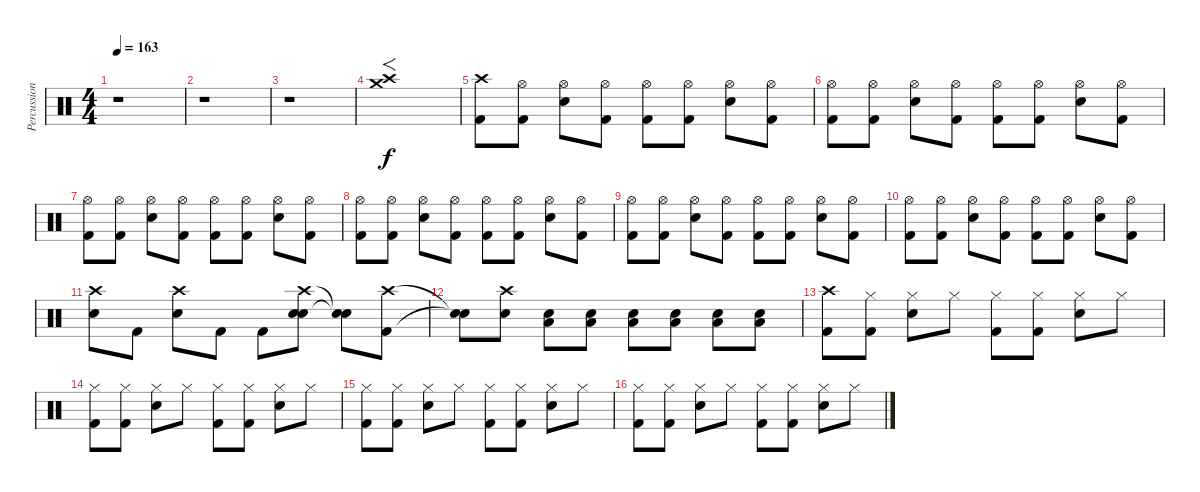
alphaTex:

\track ("Percussion" "Percussion") {instrument percussion}
\staff {score}
\articulation defaults
\ts (4 4)
\tempo 163
\clef neutral
\ks c
r.1{dy f} |
r.1 |
r.1 |
("Crash high (hit)" "Crash medium (hit)").1{f} |
("Crash high (hit)" "Kick (hit) 2").8 ("Hi-Hat (open)" "Kick (hit) 2").8 ("Hi-Hat (open)" "Snare (hit) 2").8 ("Hi-Hat (open)" "Kick (hit) 2").8 ("Hi-Hat (open)" "Kick (hit) 2").8 ("Hi-Hat (open)" "Kick (hit) 2").8 ("Hi-Hat (open)" "Snare (hit) 2").8 ("Hi-Hat (open)" "Kick (hit) 2").8 |
("Hi-Hat (open)" "Kick (hit) 2").8 ("Hi-Hat (open)" "Kick (hit) 2").8 ("Hi-Hat (open)" "Snare (hit) 2").8 ("Hi-Hat (open)" "Kick (hit) 2").8 ("Hi-Hat (open)" "Kick (hit) 2").8 ("Hi-Hat (open)" "Kick (hit) 2").8 ("Hi-Hat (open)" "Snare (hit) 2").8 ("Hi-Hat (open)" "Kick (hit) 2").8 |
("Hi-Hat (open)" "Kick (hit) 2").8 ("Hi-Hat (open)" "Kick (hit) 2").8 ("Hi-Hat (open)" "Snare (hit) 2").8 ("Hi-Hat (open)" "Kick (hit) 2").8 ("Hi-Hat (open)" "Kick (hit) 2").8 ("Hi-Hat (open)" "Kick (hit) 2").8 ("Hi-Hat (open)" "Snare (hit) 2").8 ("Hi-Hat (open)" "Kick (hit) 2").8 |
("Hi-Hat (open)" "Kick (hit) 2").8 ("Hi-Hat (open)" "Kick (hit) 2").8 ("Hi-Hat (open)" "Snare (hit) 2").8 ("Hi-Hat (open)" "Kick (hit) 2").8 ("Hi-Hat (open)" "Kick (hit) 2").8 ("Hi-Hat (open)" "Kick (hit) 2").8 ("Hi-Hat (open)" "Snare (hit) 2").8 ("Hi-Hat (open)" "Kick (hit) 2").8 |
("Hi-Hat (open)" "Kick (hit) 2").8 ("Hi-Hat (open)" "Kick (hit) 2").8 ("Hi-Hat (open)" "Snare (hit) 2").8 ("Hi-Hat (open)" "Kick (hit) 2").8 ("Hi-Hat (open)" "Kick (hit) 2").8 ("Hi-Hat (open)" "Kick (hit) 2").8 ("Hi-Hat (open)" "Snare (hit) 2").8 ("Hi-Hat (open)" "Kick (hit) 2").8 |
("Hi-Hat (open)" "Kick (hit) 2").8 ("Hi-Hat (open)" "Kick (hit) 2").8 ("Hi-Hat (open)" "Snare (hit) 2").8 ("Hi-Hat (open)" "Kick (hit) 2").8 ("Hi-Hat (open)" "Kick (hit) 2").8 ("Hi-Hat (open)" "Kick (hit) 2").8 ("Hi-Hat (open)" "Snare (hit) 2").8 ("Hi-Hat (open)" "Kick (hit) 2").8 |
("Crash high (hit)" "Snare (hit) 2").8 "Kick (hit) 2".8 ("Crash high (hit)" "Snare (hit) 2").8 "Kick (hit) 2".8 "Kick (hit) 2".8 ("Crash high (hit)" "Snare (hit) 2" "Snare (hit) 2").8 ("Snare (hit)"{t} "Snare (hit)"{t}).8 ("Crash high (hit)" "Kick (hit) 2").8 |
("Snare (hit)"{t} "Snare (hit)"{t}).8 ("Crash high (hit)" "Snare (hit) 2").8 ("Snare (hit) 2" "Low Floor Tom (hit)").8 ("Snare (hit) 2" "Low Floor Tom (hit)").8 ("Snare (hit) 2" "Low Floor Tom (hit)").8 ("Snare (hit) 2" "Low Floor Tom (hit)").8 ("Snare (hit) 2" "Low Floor Tom (hit)").8 ("Snare (hit) 2" "Low Floor Tom (hit)").8 |
("Crash high (hit)" "Kick (hit) 2").8 ("Hi-Hat (closed)" "Kick (hit) 2").8 ("Hi-Hat (closed)" "Snare (hit) 2").8 "Hi-Hat (closed)".8 ("Hi-Hat (closed)" "Kick (hit) 2").8 ("Hi-Hat (closed)" "Kick (hit) 2").8 ("Hi-Hat (closed)" "Snare (hit) 2").8 "Hi-Hat (closed)".8 |
("Hi-Hat (closed)" "Kick (hit) 2").8 ("Hi-Hat (closed)" "Kick (hit) 2").8 ("Hi-Hat (closed)" "Snare (hit) 2").8 "Hi-Hat (closed)".8 ("Hi-Hat (closed)" "Kick (hit) 2").8 ("Hi-Hat (closed)" "Kick (hit) 2").8 ("Hi-Hat (closed)" "Snare (hit) 2").8 "Hi-Hat (closed)".8 |
("Hi-Hat (closed)" "Kick (hit) 2").8 ("Hi-Hat (closed)" "Kick (hit) 2").8 ("Hi-Hat (closed)" "Snare (hit) 2").8 "Hi-Hat (closed)".8 ("Hi-Hat (closed)" "Kick (hit) 2").8 ("Hi-Hat (closed)" "Kick (hit) 2").8 ("Hi-Hat (closed)" "Snare (hit) 2").8 "Hi-Hat (closed)".8 |
("Hi-Hat (closed)" "Kick (hit) 2").8 ("Hi-Hat (closed)" "Kick (hit) 2").8 ("Hi-Hat (closed)" "Snare (hit) 2").8 "Hi-Hat (closed)".8 ("Hi-Hat (closed)" "Kick (hit) 2").8 ("Hi-Hat (closed)" "Kick (hit) 2").8 ("Hi-Hat (closed)" "Snare (hit) 2").8 "Hi-Hat (closed)".8
